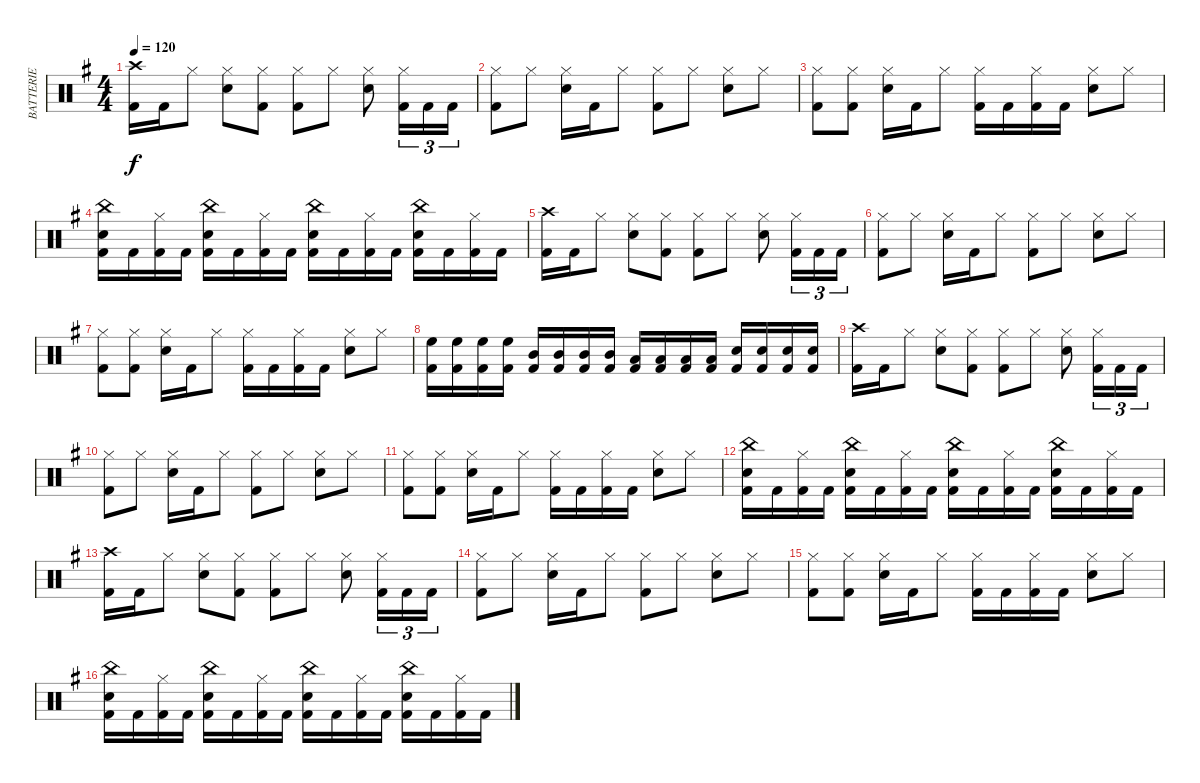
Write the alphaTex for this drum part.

\track ("BATTERIE" "BATTERIE") {instrument percussion}
\staff {score}
\articulation defaults
\ts (4 4)
\tempo 120
\clef neutral
\ks g
("Crash high (hit)" "Kick (hit) 2").16{dy f} "Kick (hit) 2".16 "Hi-Hat (closed)".8 ("Hi-Hat (closed)" "Snare (hit) 2").8 ("Hi-Hat (closed)" "Kick (hit) 2").8 ("Hi-Hat (closed)" "Kick (hit) 2").8 "Hi-Hat (closed)".8 ("Hi-Hat (closed)" "Snare (hit) 2").8 ("Hi-Hat (closed)" "Kick (hit) 2").16{tu (3 2)} "Kick (hit) 2".16{tu (3 2)} "Kick (hit) 2".16{tu (3 2)} |
("Hi-Hat (closed)" "Kick (hit) 2").8 "Hi-Hat (closed)".8 ("Hi-Hat (closed)" "Snare (hit) 2").16 "Kick (hit) 2".16 "Hi-Hat (closed)".8 ("Hi-Hat (closed)" "Kick (hit) 2").8 "Hi-Hat (closed)".8 ("Hi-Hat (closed)" "Snare (hit) 2").8 "Hi-Hat (closed)".8 |
("Hi-Hat (closed)" "Kick (hit) 2").8 ("Hi-Hat (closed)" "Kick (hit) 2").8 ("Hi-Hat (closed)" "Snare (hit) 2").16 "Kick (hit) 2".16 "Hi-Hat (closed)".8 ("Hi-Hat (closed)" "Kick (hit) 2").16 "Kick (hit) 2".16 ("Hi-Hat (closed)" "Kick (hit) 2").16 "Kick (hit) 2".16 ("Hi-Hat (closed)" "Snare (hit) 2").8 "Hi-Hat (closed)".8 |
("China (hit)" "Snare (hit) 2" "Kick (hit) 2").16 "Kick (hit) 2".16 ("Hi-Hat (closed)" "Kick (hit) 2").16 "Kick (hit) 2".16 ("China (hit)" "Snare (hit) 2" "Kick (hit) 2").16 "Kick (hit) 2".16 ("Hi-Hat (closed)" "Kick (hit) 2").16 "Kick (hit) 2".16 ("China (hit)" "Snare (hit) 2" "Kick (hit) 2").16 "Kick (hit) 2".16 ("Hi-Hat (closed)" "Kick (hit) 2").16 "Kick (hit) 2".16 ("China (hit)" "Snare (hit) 2" "Kick (hit) 2").16 "Kick (hit) 2".16 ("Hi-Hat (closed)" "Kick (hit) 2").16 "Kick (hit) 2".16 |
("Crash high (hit)" "Kick (hit) 2").16 "Kick (hit) 2".16 "Hi-Hat (closed)".8 ("Hi-Hat (closed)" "Snare (hit) 2").8 ("Hi-Hat (closed)" "Kick (hit) 2").8 ("Hi-Hat (closed)" "Kick (hit) 2").8 "Hi-Hat (closed)".8 ("Hi-Hat (closed)" "Snare (hit) 2").8 ("Hi-Hat (closed)" "Kick (hit) 2").16{tu (3 2)} "Kick (hit) 2".16{tu (3 2)} "Kick (hit) 2".16{tu (3 2)} |
("Hi-Hat (closed)" "Kick (hit) 2").8 "Hi-Hat (closed)".8 ("Hi-Hat (closed)" "Snare (hit) 2").16 "Kick (hit) 2".16 "Hi-Hat (closed)".8 ("Hi-Hat (closed)" "Kick (hit) 2").8 "Hi-Hat (closed)".8 ("Hi-Hat (closed)" "Snare (hit) 2").8 "Hi-Hat (closed)".8 |
("Hi-Hat (closed)" "Kick (hit) 2").8 ("Hi-Hat (closed)" "Kick (hit) 2").8 ("Hi-Hat (closed)" "Snare (hit) 2").16 "Kick (hit) 2".16 "Hi-Hat (closed)".8 ("Hi-Hat (closed)" "Kick (hit) 2").16 "Kick (hit) 2".16 ("Hi-Hat (closed)" "Kick (hit) 2").16 "Kick (hit) 2".16 ("Hi-Hat (closed)" "Snare (hit) 2").8 "Hi-Hat (closed)".8 |
("High Floor Tom (hit)" "Kick (hit) 2").16 ("High Floor Tom (hit)" "Kick (hit) 2").16 ("High Floor Tom (hit)" "Kick (hit) 2").16 ("High Floor Tom (hit)" "Kick (hit) 2").16 ("Mid Tom (hit)" "Kick (hit) 2").16 ("Mid Tom (hit)" "Kick (hit) 2").16 ("Mid Tom (hit)" "Kick (hit) 2").16 ("Mid Tom (hit)" "Kick (hit) 2").16 ("Low Tom (hit)" "Kick (hit) 2").16 ("Low Tom (hit)" "Kick (hit) 2").16 ("Low Tom (hit)" "Kick (hit) 2").16 ("Low Tom (hit)" "Kick (hit) 2").16 ("Snare (hit) 2" "Kick (hit) 2").16 ("Snare (hit) 2" "Kick (hit) 2").16 ("Snare (hit) 2" "Kick (hit) 2").16 ("Snare (hit) 2" "Kick (hit) 2").16 |
("Crash high (hit)" "Kick (hit) 2").16 "Kick (hit) 2".16 "Hi-Hat (closed)".8 ("Hi-Hat (closed)" "Snare (hit) 2").8 ("Hi-Hat (closed)" "Kick (hit) 2").8 ("Hi-Hat (closed)" "Kick (hit) 2").8 "Hi-Hat (closed)".8 ("Hi-Hat (closed)" "Snare (hit) 2").8 ("Hi-Hat (closed)" "Kick (hit) 2").16{tu (3 2)} "Kick (hit) 2".16{tu (3 2)} "Kick (hit) 2".16{tu (3 2)} |
("Hi-Hat (closed)" "Kick (hit) 2").8 "Hi-Hat (closed)".8 ("Hi-Hat (closed)" "Snare (hit) 2").16 "Kick (hit) 2".16 "Hi-Hat (closed)".8 ("Hi-Hat (closed)" "Kick (hit) 2").8 "Hi-Hat (closed)".8 ("Hi-Hat (closed)" "Snare (hit) 2").8 "Hi-Hat (closed)".8 |
("Hi-Hat (closed)" "Kick (hit) 2").8 ("Hi-Hat (closed)" "Kick (hit) 2").8 ("Hi-Hat (closed)" "Snare (hit) 2").16 "Kick (hit) 2".16 "Hi-Hat (closed)".8 ("Hi-Hat (closed)" "Kick (hit) 2").16 "Kick (hit) 2".16 ("Hi-Hat (closed)" "Kick (hit) 2").16 "Kick (hit) 2".16 ("Hi-Hat (closed)" "Snare (hit) 2").8 "Hi-Hat (closed)".8 |
("China (hit)" "Snare (hit) 2" "Kick (hit) 2").16 "Kick (hit) 2".16 ("Hi-Hat (closed)" "Kick (hit) 2").16 "Kick (hit) 2".16 ("China (hit)" "Snare (hit) 2" "Kick (hit) 2").16 "Kick (hit) 2".16 ("Hi-Hat (closed)" "Kick (hit) 2").16 "Kick (hit) 2".16 ("China (hit)" "Snare (hit) 2" "Kick (hit) 2").16 "Kick (hit) 2".16 ("Hi-Hat (closed)" "Kick (hit) 2").16 "Kick (hit) 2".16 ("China (hit)" "Snare (hit) 2" "Kick (hit) 2").16 "Kick (hit) 2".16 ("Hi-Hat (closed)" "Kick (hit) 2").16 "Kick (hit) 2".16 |
("Crash high (hit)" "Kick (hit) 2").16 "Kick (hit) 2".16 "Hi-Hat (closed)".8 ("Hi-Hat (closed)" "Snare (hit) 2").8 ("Hi-Hat (closed)" "Kick (hit) 2").8 ("Hi-Hat (closed)" "Kick (hit) 2").8 "Hi-Hat (closed)".8 ("Hi-Hat (closed)" "Snare (hit) 2").8 ("Hi-Hat (closed)" "Kick (hit) 2").16{tu (3 2)} "Kick (hit) 2".16{tu (3 2)} "Kick (hit) 2".16{tu (3 2)} |
("Hi-Hat (closed)" "Kick (hit) 2").8 "Hi-Hat (closed)".8 ("Hi-Hat (closed)" "Snare (hit) 2").16 "Kick (hit) 2".16 "Hi-Hat (closed)".8 ("Hi-Hat (closed)" "Kick (hit) 2").8 "Hi-Hat (closed)".8 ("Hi-Hat (closed)" "Snare (hit) 2").8 "Hi-Hat (closed)".8 |
("Hi-Hat (closed)" "Kick (hit) 2").8 ("Hi-Hat (closed)" "Kick (hit) 2").8 ("Hi-Hat (closed)" "Snare (hit) 2").16 "Kick (hit) 2".16 "Hi-Hat (closed)".8 ("Hi-Hat (closed)" "Kick (hit) 2").16 "Kick (hit) 2".16 ("Hi-Hat (closed)" "Kick (hit) 2").16 "Kick (hit) 2".16 ("Hi-Hat (closed)" "Snare (hit) 2").8 "Hi-Hat (closed)".8 |
("China (hit)" "Snare (hit) 2" "Kick (hit) 2").16 "Kick (hit) 2".16 ("Hi-Hat (closed)" "Kick (hit) 2").16 "Kick (hit) 2".16 ("China (hit)" "Snare (hit) 2" "Kick (hit) 2").16 "Kick (hit) 2".16 ("Hi-Hat (closed)" "Kick (hit) 2").16 "Kick (hit) 2".16 ("China (hit)" "Snare (hit) 2" "Kick (hit) 2").16 "Kick (hit) 2".16 ("Hi-Hat (closed)" "Kick (hit) 2").16 "Kick (hit) 2".16 ("China (hit)" "Snare (hit) 2" "Kick (hit) 2").16 "Kick (hit) 2".16 ("Hi-Hat (closed)" "Kick (hit) 2").16 "Kick (hit) 2".16
